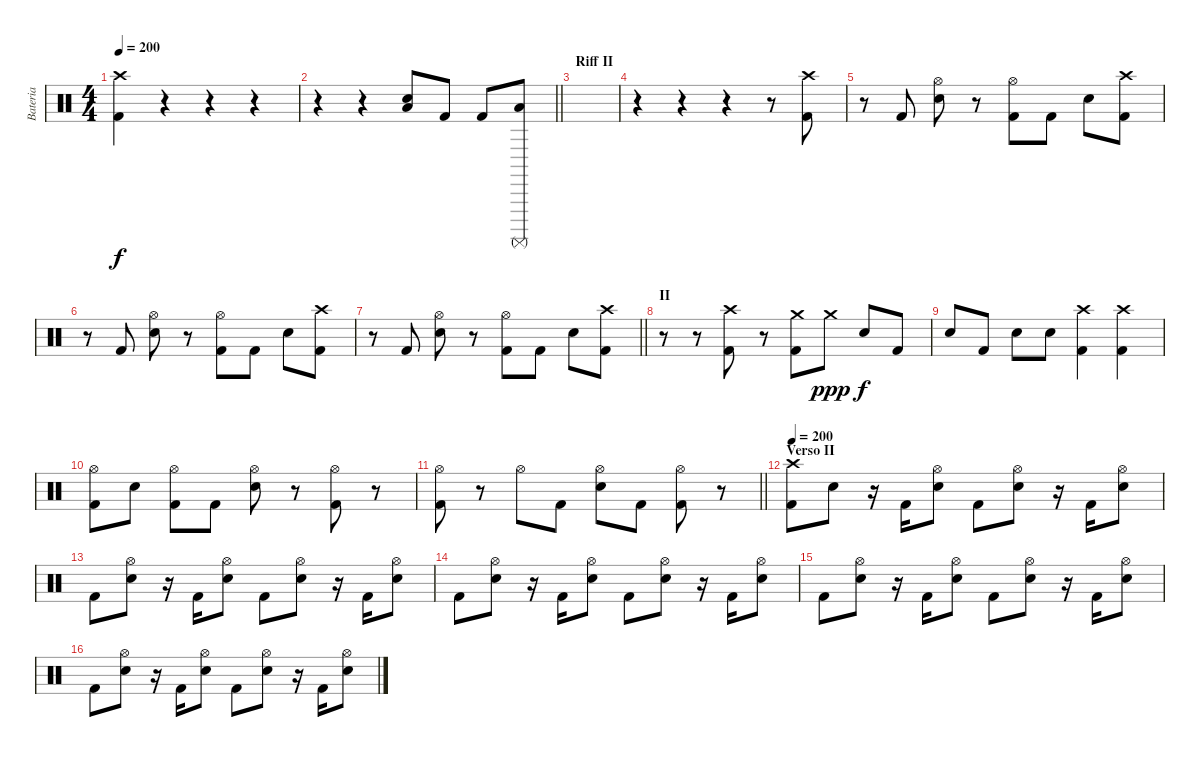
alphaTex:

\track ("Bateria" "Bateria") {instrument percussion}
\staff {score}
\articulation defaults
\ts (4 4)
\tempo 200
\clef neutral
\ks c
("Kick (hit) 2" "Crash high (hit)").4{dy f} r.4 r.4 r.4 |
\barLineRight lightlight
r.4 r.4 ("Electric Snare (hit)" "Low Tom (hit)").8 "Kick (hit) 2".8 "Kick (hit) 2".8 ("Low Tom (hit)" "Surdo (mute)").8 |
\section ("" "Riff II")
|
r.4 r.4 r.4 r.8 ("Kick (hit) 2" "Crash high (hit)").8 |
r.8 "Kick (hit) 2".8 ("Electric Snare (hit)" "Hi-Hat (open)").8 r.8 ("Kick (hit) 2" "Hi-Hat (open)").8 "Kick (hit) 2".8 "Electric Snare (hit)".8 ("Kick (hit) 2" "Crash high (hit)").8 |
r.8 "Kick (hit) 2".8 ("Electric Snare (hit)" "Hi-Hat (open)").8 r.8 ("Kick (hit) 2" "Hi-Hat (open)").8 "Kick (hit) 2".8 "Electric Snare (hit)".8 ("Kick (hit) 2" "Crash high (hit)").8 |
\barLineRight lightlight
r.8 "Kick (hit) 2".8 ("Electric Snare (hit)" "Hi-Hat (open)").8 r.8 ("Kick (hit) 2" "Hi-Hat (open)").8 "Kick (hit) 2".8 "Electric Snare (hit)".8 ("Kick (hit) 2" "Crash high (hit)").8 |
\section ("" "II")
r.8 r.8 ("Kick (hit) 2" "Crash high (hit)").8 r.8 ("Kick (hit) 2" "Crash medium (hit)").8 "Crash medium (hit)".8{dy ppp} "Electric Snare (hit)".8{dy f} "Kick (hit) 2".8 |
"Electric Snare (hit)".8 "Kick (hit) 2".8 "Electric Snare (hit)".8 "Electric Snare (hit)".8 ("Kick (hit) 2" "Crash high (hit)").4 ("Kick (hit) 2" "Crash high (hit)").4 |
("Kick (hit) 2" "Hi-Hat (open)").8 "Electric Snare (hit)".8 ("Kick (hit) 2" "Hi-Hat (open)").8 "Kick (hit) 2".8 ("Electric Snare (hit)" "Hi-Hat (open)").8 r.8 ("Kick (hit) 2" "Hi-Hat (open)").8 r.8 |
\barLineRight lightlight
("Kick (hit) 2" "Hi-Hat (open)").8 r.8 "Hi-Hat (open)".8 "Kick (hit) 2".8 ("Electric Snare (hit)" "Hi-Hat (open)").8 "Kick (hit) 2".8 ("Kick (hit) 2" "Hi-Hat (open)").8 r.8 |
\section ("" "Verso II")
\tempo 200
("Kick (hit) 2" "Crash high (hit)").8 "Electric Snare (hit)".8 r.16 "Kick (hit) 2".16 ("Electric Snare (hit)" "Hi-Hat (open)").8 "Kick (hit) 2".8 ("Electric Snare (hit)" "Hi-Hat (open)").8 r.16 "Kick (hit) 2".16 ("Electric Snare (hit)" "Hi-Hat (open)").8 |
"Kick (hit) 2".8 ("Electric Snare (hit)" "Hi-Hat (open)").8 r.16 "Kick (hit) 2".16 ("Electric Snare (hit)" "Hi-Hat (open)").8 "Kick (hit) 2".8 ("Electric Snare (hit)" "Hi-Hat (open)").8 r.16 "Kick (hit) 2".16 ("Electric Snare (hit)" "Hi-Hat (open)").8 |
"Kick (hit) 2".8 ("Electric Snare (hit)" "Hi-Hat (open)").8 r.16 "Kick (hit) 2".16 ("Electric Snare (hit)" "Hi-Hat (open)").8 "Kick (hit) 2".8 ("Electric Snare (hit)" "Hi-Hat (open)").8 r.16 "Kick (hit) 2".16 ("Electric Snare (hit)" "Hi-Hat (open)").8 |
"Kick (hit) 2".8 ("Electric Snare (hit)" "Hi-Hat (open)").8 r.16 "Kick (hit) 2".16 ("Electric Snare (hit)" "Hi-Hat (open)").8 "Kick (hit) 2".8 ("Electric Snare (hit)" "Hi-Hat (open)").8 r.16 "Kick (hit) 2".16 ("Electric Snare (hit)" "Hi-Hat (open)").8 |
"Kick (hit) 2".8 ("Electric Snare (hit)" "Hi-Hat (open)").8 r.16 "Kick (hit) 2".16 ("Electric Snare (hit)" "Hi-Hat (open)").8 "Kick (hit) 2".8 ("Electric Snare (hit)" "Hi-Hat (open)").8 r.16 "Kick (hit) 2".16 ("Electric Snare (hit)" "Hi-Hat (open)").8
